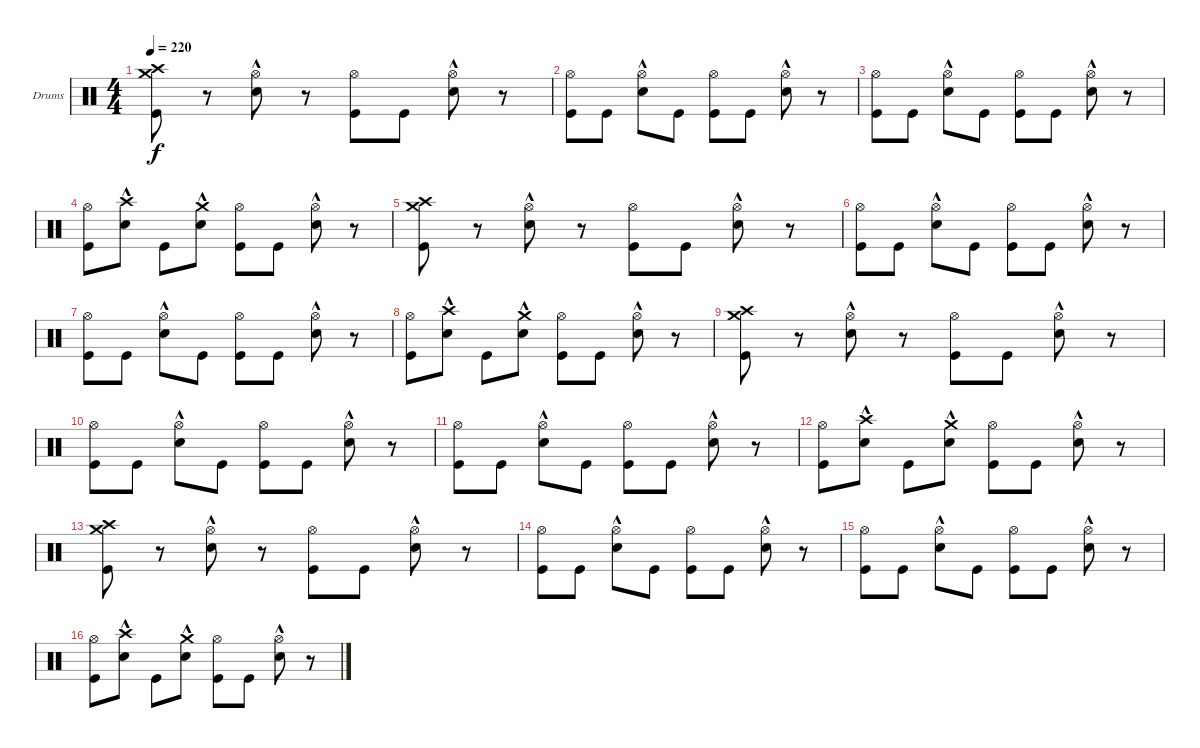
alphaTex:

\defaultSystemsLayout 4
\bracketExtendMode groupsimilarinstruments
\firstSystemTrackNameOrientation horizontal
\otherSystemsTrackNameOrientation horizontal
\track ("Drumkit" "Drums") {instrument percussion}
\staff {score}
\articulation defaults
\ts (4 4)
\tempo 220
\clef neutral
\scale
0.333333
\ks c
("Crash high (hit)" "Crash medium (hit)" "Kick (hit)").8{dy f} r.8 ("Hi-Hat (open)" "Snare (hit) 2"{hac}).8 r.8 ("Hi-Hat (open)" "Kick (hit)").8 "Kick (hit)".8 ("Hi-Hat (open)" "Snare (hit) 2"{hac}).8 r.8 |
\scale
0.333333 ("Kick (hit)" "Hi-Hat (open)").8 "Kick (hit)".8 ("Hi-Hat (open)" "Snare (hit) 2"{hac}).8 "Kick (hit)".8 ("Hi-Hat (open)" "Kick (hit)").8 "Kick (hit)".8 ("Hi-Hat (open)" "Snare (hit) 2"{hac}).8 r.8 |
\scale
0.333333 ("Kick (hit)" "Hi-Hat (open)").8 "Kick (hit)".8 ("Hi-Hat (open)" "Snare (hit) 2"{hac}).8 "Kick (hit)".8 ("Hi-Hat (open)" "Kick (hit)").8 "Kick (hit)".8 ("Hi-Hat (open)" "Snare (hit) 2"{hac}).8 r.8 |
\scale
0.333333 ("Kick (hit)" "Hi-Hat (open)").8 ("Snare (hit) 2"{hac} "Crash high (hit)").8 "Kick (hit)".8 ("Snare (hit) 2"{hac} "Crash medium (hit)").8 ("Hi-Hat (open)" "Kick (hit)").8 "Kick (hit)".8 ("Hi-Hat (open)" "Snare (hit) 2"{hac}).8 r.8 |
\scale
0.333333 ("Crash high (hit)" "Crash medium (hit)" "Kick (hit)").8 r.8 ("Hi-Hat (open)" "Snare (hit) 2"{hac}).8 r.8 ("Hi-Hat (open)" "Kick (hit)").8 "Kick (hit)".8 ("Hi-Hat (open)" "Snare (hit) 2"{hac}).8 r.8 |
\scale
0.333333 ("Kick (hit)" "Hi-Hat (open)").8 "Kick (hit)".8 ("Hi-Hat (open)" "Snare (hit) 2"{hac}).8 "Kick (hit)".8 ("Hi-Hat (open)" "Kick (hit)").8 "Kick (hit)".8 ("Hi-Hat (open)" "Snare (hit) 2"{hac}).8 r.8 |
\scale
0.333333 ("Kick (hit)" "Hi-Hat (open)").8 "Kick (hit)".8 ("Hi-Hat (open)" "Snare (hit) 2"{hac}).8 "Kick (hit)".8 ("Hi-Hat (open)" "Kick (hit)").8 "Kick (hit)".8 ("Hi-Hat (open)" "Snare (hit) 2"{hac}).8 r.8 |
\scale
0.333333 ("Kick (hit)" "Hi-Hat (open)").8 ("Snare (hit) 2"{hac} "Crash high (hit)").8 "Kick (hit)".8 ("Snare (hit) 2"{hac} "Crash medium (hit)").8 ("Hi-Hat (open)" "Kick (hit)").8 "Kick (hit)".8 ("Hi-Hat (open)" "Snare (hit) 2"{hac}).8 r.8 |
\scale
0.333333 ("Crash high (hit)" "Crash medium (hit)" "Kick (hit)").8 r.8 ("Hi-Hat (open)" "Snare (hit) 2"{hac}).8 r.8 ("Hi-Hat (open)" "Kick (hit)").8 "Kick (hit)".8 ("Hi-Hat (open)" "Snare (hit) 2"{hac}).8 r.8 |
\scale
0.333333 ("Kick (hit)" "Hi-Hat (open)").8 "Kick (hit)".8 ("Hi-Hat (open)" "Snare (hit) 2"{hac}).8 "Kick (hit)".8 ("Hi-Hat (open)" "Kick (hit)").8 "Kick (hit)".8 ("Hi-Hat (open)" "Snare (hit) 2"{hac}).8 r.8 |
\scale
0.333333 ("Kick (hit)" "Hi-Hat (open)").8 "Kick (hit)".8 ("Hi-Hat (open)" "Snare (hit) 2"{hac}).8 "Kick (hit)".8 ("Hi-Hat (open)" "Kick (hit)").8 "Kick (hit)".8 ("Hi-Hat (open)" "Snare (hit) 2"{hac}).8 r.8 |
\scale
0.333333 ("Kick (hit)" "Hi-Hat (open)").8 ("Snare (hit) 2"{hac} "Crash high (hit)").8 "Kick (hit)".8 ("Snare (hit) 2"{hac} "Crash medium (hit)").8 ("Hi-Hat (open)" "Kick (hit)").8 "Kick (hit)".8 ("Hi-Hat (open)" "Snare (hit) 2"{hac}).8 r.8 |
\scale
0.333333 ("Crash high (hit)" "Crash medium (hit)" "Kick (hit)").8 r.8 ("Hi-Hat (open)" "Snare (hit) 2"{hac}).8 r.8 ("Hi-Hat (open)" "Kick (hit)").8 "Kick (hit)".8 ("Hi-Hat (open)" "Snare (hit) 2"{hac}).8 r.8 |
\scale
0.333333 ("Kick (hit)" "Hi-Hat (open)").8 "Kick (hit)".8 ("Hi-Hat (open)" "Snare (hit) 2"{hac}).8 "Kick (hit)".8 ("Hi-Hat (open)" "Kick (hit)").8 "Kick (hit)".8 ("Hi-Hat (open)" "Snare (hit) 2"{hac}).8 r.8 |
\scale
0.333333 ("Kick (hit)" "Hi-Hat (open)").8 "Kick (hit)".8 ("Hi-Hat (open)" "Snare (hit) 2"{hac}).8 "Kick (hit)".8 ("Hi-Hat (open)" "Kick (hit)").8 "Kick (hit)".8 ("Hi-Hat (open)" "Snare (hit) 2"{hac}).8 r.8 |
\scale
0.333333 ("Kick (hit)" "Hi-Hat (open)").8 ("Snare (hit) 2"{hac} "Crash high (hit)").8 "Kick (hit)".8 ("Snare (hit) 2"{hac} "Crash medium (hit)").8 ("Hi-Hat (open)" "Kick (hit)").8 "Kick (hit)".8 ("Hi-Hat (open)" "Snare (hit) 2"{hac}).8 r.8
